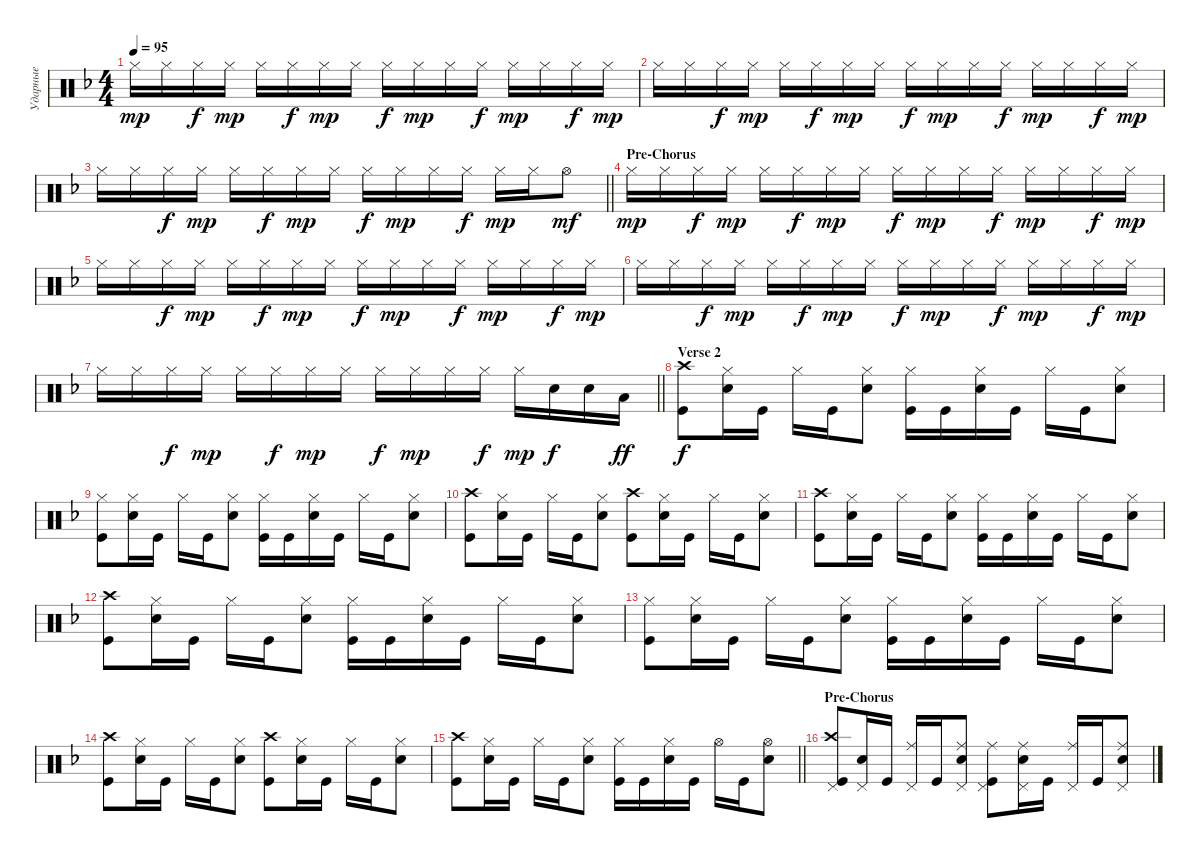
\track ("Ударные" "Ударные") {instrument percussion}
\staff {score}
\articulation defaults
\ts (4 4)
\tempo 95
\clef neutral
\ks dminor "Hi-Hat (closed)".16{dy mp} "Hi-Hat (closed)".16 "Hi-Hat (closed)".16{dy f} "Hi-Hat (closed)".16{dy mp} "Hi-Hat (closed)".16 "Hi-Hat (closed)".16{dy f} "Hi-Hat (closed)".16{dy mp} "Hi-Hat (closed)".16 "Hi-Hat (closed)".16{dy f} "Hi-Hat (closed)".16{dy mp} "Hi-Hat (closed)".16 "Hi-Hat (closed)".16{dy f} "Hi-Hat (closed)".16{dy mp} "Hi-Hat (closed)".16 "Hi-Hat (closed)".16{dy f} "Hi-Hat (closed)".16{dy mp}
|
"Hi-Hat (closed)".16 "Hi-Hat (closed)".16 "Hi-Hat (closed)".16{dy f} "Hi-Hat (closed)".16{dy mp} "Hi-Hat (closed)".16 "Hi-Hat (closed)".16{dy f} "Hi-Hat (closed)".16{dy mp} "Hi-Hat (closed)".16 "Hi-Hat (closed)".16{dy f} "Hi-Hat (closed)".16{dy mp} "Hi-Hat (closed)".16 "Hi-Hat (closed)".16{dy f} "Hi-Hat (closed)".16{dy mp} "Hi-Hat (closed)".16 "Hi-Hat (closed)".16{dy f} "Hi-Hat (closed)".16{dy mp} |
\barLineRight lightlight "Hi-Hat (closed)".16 "Hi-Hat (closed)".16 "Hi-Hat (closed)".16{dy f} "Hi-Hat (closed)".16{dy mp} "Hi-Hat (closed)".16 "Hi-Hat (closed)".16{dy f} "Hi-Hat (closed)".16{dy mp} "Hi-Hat (closed)".16 "Hi-Hat (closed)".16{dy f} "Hi-Hat (closed)".16{dy mp} "Hi-Hat (closed)".16 "Hi-Hat (closed)".16{dy f} "Hi-Hat (closed)".16{dy mp} "Hi-Hat (closed)".16 "Hi-Hat (open)".8{dy mf}
|
\section ("" "Pre-Chorus")
"Hi-Hat (closed)".16{dy mp} "Hi-Hat (closed)".16 "Hi-Hat (closed)".16{dy f} "Hi-Hat (closed)".16{dy mp} "Hi-Hat (closed)".16 "Hi-Hat (closed)".16{dy f} "Hi-Hat (closed)".16{dy mp} "Hi-Hat (closed)".16 "Hi-Hat (closed)".16{dy f} "Hi-Hat (closed)".16{dy mp} "Hi-Hat (closed)".16 "Hi-Hat (closed)".16{dy f} "Hi-Hat (closed)".16{dy mp} "Hi-Hat (closed)".16 "Hi-Hat (closed)".16{dy f} "Hi-Hat (closed)".16{dy mp} |
"Hi-Hat (closed)".16 "Hi-Hat (closed)".16 "Hi-Hat (closed)".16{dy f} "Hi-Hat (closed)".16{dy mp} "Hi-Hat (closed)".16 "Hi-Hat (closed)".16{dy f} "Hi-Hat (closed)".16{dy mp} "Hi-Hat (closed)".16 "Hi-Hat (closed)".16{dy f} "Hi-Hat (closed)".16{dy mp} "Hi-Hat (closed)".16 "Hi-Hat (closed)".16{dy f} "Hi-Hat (closed)".16{dy mp} "Hi-Hat (closed)".16 "Hi-Hat (closed)".16{dy f} "Hi-Hat (closed)".16{dy mp} |
"Hi-Hat (closed)".16 "Hi-Hat (closed)".16 "Hi-Hat (closed)".16{dy f} "Hi-Hat (closed)".16{dy mp} "Hi-Hat (closed)".16 "Hi-Hat (closed)".16{dy f} "Hi-Hat (closed)".16{dy mp} "Hi-Hat (closed)".16 "Hi-Hat (closed)".16{dy f} "Hi-Hat (closed)".16{dy mp} "Hi-Hat (closed)".16 "Hi-Hat (closed)".16{dy f} "Hi-Hat (closed)".16{dy mp} "Hi-Hat (closed)".16 "Hi-Hat (closed)".16{dy f} "Hi-Hat (closed)".16{dy mp} |
\barLineRight lightlight "Hi-Hat (closed)".16 "Hi-Hat (closed)".16 "Hi-Hat (closed)".16{dy f} "Hi-Hat (closed)".16{dy mp} "Hi-Hat (closed)".16 "Hi-Hat (closed)".16{dy f} "Hi-Hat (closed)".16{dy mp} "Hi-Hat (closed)".16 "Hi-Hat (closed)".16{dy f} "Hi-Hat (closed)".16{dy mp} "Hi-Hat (closed)".16 "Hi-Hat (closed)".16{dy f} "Hi-Hat (closed)".16{dy mp} "Snare (hit) 2".16{dy f} "Snare (hit) 2".16 "Low Tom (hit)".16{dy ff}
|
\section ("" "Verse 2")
("Kick (hit)" "Crash high (hit)").8{dy f} ("Snare (hit) 2" "Hi-Hat (closed)").16 "Kick (hit)".16 "Hi-Hat (closed)".16 "Kick (hit)".16 ("Snare (hit) 2" "Hi-Hat (closed)").8 ("Kick (hit)" "Hi-Hat (closed)").16 "Kick (hit)".16 ("Snare (hit) 2" "Hi-Hat (closed)").16 "Kick (hit)".16 "Hi-Hat (closed)".16 "Kick (hit)".16 ("Snare (hit) 2" "Hi-Hat (closed)").8 |
("Kick (hit)" "Hi-Hat (closed)").8 ("Snare (hit) 2" "Hi-Hat (closed)").16 "Kick (hit)".16 "Hi-Hat (closed)".16 "Kick (hit)".16 ("Snare (hit) 2" "Hi-Hat (closed)").8 ("Kick (hit)" "Hi-Hat (closed)").16 "Kick (hit)".16 ("Snare (hit) 2" "Hi-Hat (closed)").16 "Kick (hit)".16 "Hi-Hat (closed)".16 "Kick (hit)".16 ("Snare (hit) 2" "Hi-Hat (closed)").8 |
("Kick (hit)" "Crash high (hit)").8 ("Snare (hit) 2" "Hi-Hat (closed)").16 "Kick (hit)".16 "Hi-Hat (closed)".16 "Kick (hit)".16 ("Snare (hit) 2" "Hi-Hat (closed)").8 ("Kick (hit)" "Crash high (hit)").8 ("Snare (hit) 2" "Hi-Hat (closed)").16 "Kick (hit)".16 "Hi-Hat (closed)".16 "Kick (hit)".16 ("Snare (hit) 2" "Hi-Hat (closed)").8 |
("Kick (hit)" "Crash high (hit)").8 ("Snare (hit) 2" "Hi-Hat (closed)").16 "Kick (hit)".16 "Hi-Hat (closed)".16 "Kick (hit)".16 ("Snare (hit) 2" "Hi-Hat (closed)").8 ("Kick (hit)" "Hi-Hat (closed)").16 "Kick (hit)".16 ("Snare (hit) 2" "Hi-Hat (closed)").16 "Kick (hit)".16 "Hi-Hat (closed)".16 "Kick (hit)".16 ("Snare (hit) 2" "Hi-Hat (closed)").8 |
("Kick (hit)" "Crash high (hit)").8 ("Snare (hit) 2" "Hi-Hat (closed)").16 "Kick (hit)".16 "Hi-Hat (closed)".16 "Kick (hit)".16 ("Snare (hit) 2" "Hi-Hat (closed)").8 ("Kick (hit)" "Hi-Hat (closed)").16 "Kick (hit)".16 ("Snare (hit) 2" "Hi-Hat (closed)").16 "Kick (hit)".16 "Hi-Hat (closed)".16 "Kick (hit)".16 ("Snare (hit) 2" "Hi-Hat (closed)").8 |
("Kick (hit)" "Hi-Hat (closed)").8 ("Snare (hit) 2" "Hi-Hat (closed)").16 "Kick (hit)".16 "Hi-Hat (closed)".16 "Kick (hit)".16 ("Snare (hit) 2" "Hi-Hat (closed)").8 ("Kick (hit)" "Hi-Hat (closed)").16 "Kick (hit)".16 ("Snare (hit) 2" "Hi-Hat (closed)").16 "Kick (hit)".16 "Hi-Hat (closed)".16 "Kick (hit)".16 ("Snare (hit) 2" "Hi-Hat (closed)").8 |
("Kick (hit)" "Crash high (hit)").8 ("Snare (hit) 2" "Hi-Hat (closed)").16 "Kick (hit)".16 "Hi-Hat (closed)".16 "Kick (hit)".16 ("Snare (hit) 2" "Hi-Hat (closed)").8 ("Kick (hit)" "Crash high (hit)").8 ("Snare (hit) 2" "Hi-Hat (closed)").16 "Kick (hit)".16 "Hi-Hat (closed)".16 "Kick (hit)".16 ("Snare (hit) 2" "Hi-Hat (closed)").8 |
\barLineRight lightlight
("Kick (hit)" "Crash high (hit)").8 ("Snare (hit) 2" "Hi-Hat (closed)").16 "Kick (hit)".16 "Hi-Hat (closed)".16 "Kick (hit)".16 ("Snare (hit) 2" "Hi-Hat (closed)").8 ("Kick (hit)" "Hi-Hat (closed)").16 "Kick (hit)".16 ("Snare (hit) 2" "Hi-Hat (closed)").16 "Kick (hit)".16 "Hi-Hat (open)".16 "Kick (hit)".16 ("Snare (hit) 2" "Hi-Hat (open)").8 |
\section ("" "Pre-Chorus")
("Kick (hit)" "Crash high (hit)" "Pedal Hi-Hat (hit)").8 ("Snare (hit) 2" "Pedal Hi-Hat (hit)").16 "Kick (hit)".16 ("Pedal Hi-Hat (hit)" "Ride (middle)").16 "Kick (hit)".16 ("Snare (hit) 2" "Pedal Hi-Hat (hit)" "Ride (middle)").8 ("Kick (hit)" "Pedal Hi-Hat (hit)" "Ride (middle)").8 ("Snare (hit) 2" "Pedal Hi-Hat (hit)" "Ride (middle)").16 "Kick (hit)".16 ("Pedal Hi-Hat (hit)" "Ride (middle)").16 "Kick (hit)".16 ("Snare (hit) 2" "Pedal Hi-Hat (hit)" "Ride (middle)").8
